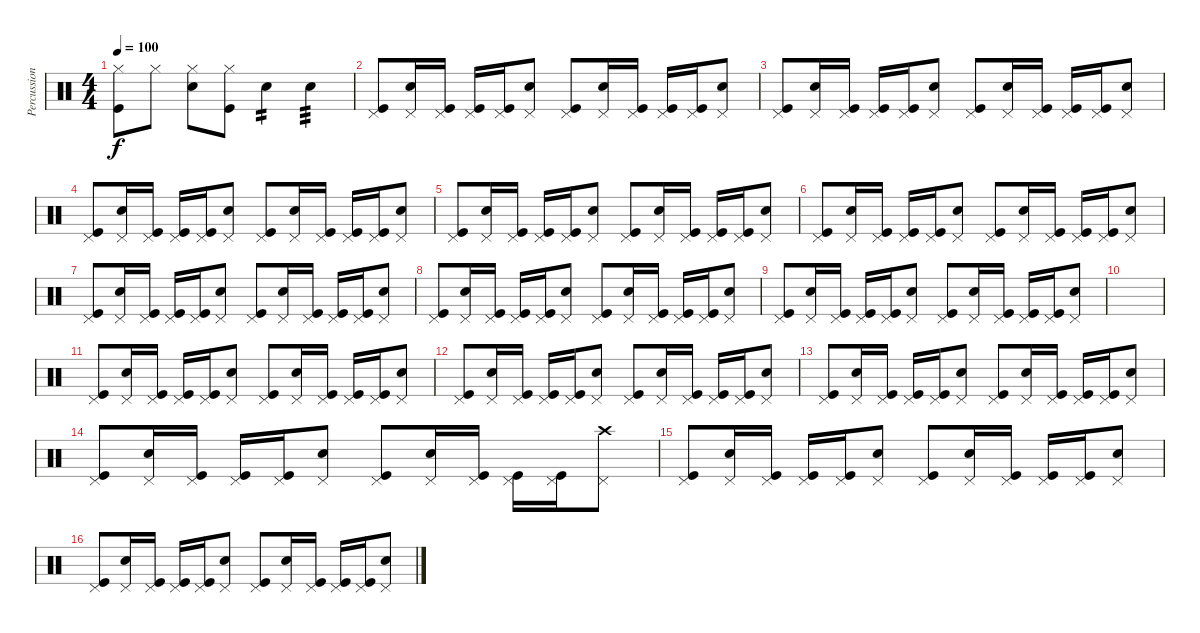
\track ("Percussion" "Percussion") {instrument percussion}
\staff {score}
\articulation defaults
\ts (4 4)
\tempo 100
\clef neutral
\ks c
("Kick (hit)" "Hi-Hat (closed)").8{dy f} "Hi-Hat (closed)".8 ("Electric Snare (hit)" "Hi-Hat (closed)").8 ("Kick (hit)" "Hi-Hat (closed)").8 "Electric Snare (hit)".4{tp 2} "Electric Snare (hit)".4{tp 3} |
("Kick (hit)" "Pedal Hi-Hat (hit)").8 ("Snare (hit) 2" "Pedal Hi-Hat (hit)").16 ("Kick (hit)" "Pedal Hi-Hat (hit)").16 ("Kick (hit)" "Pedal Hi-Hat (hit)").16 ("Kick (hit)" "Pedal Hi-Hat (hit)").16 ("Snare (hit) 2" "Pedal Hi-Hat (hit)").8 ("Kick (hit)" "Pedal Hi-Hat (hit)").8 ("Snare (hit) 2" "Pedal Hi-Hat (hit)").16 ("Kick (hit)" "Pedal Hi-Hat (hit)").16 ("Kick (hit)" "Pedal Hi-Hat (hit)").16 ("Kick (hit)" "Pedal Hi-Hat (hit)").16 ("Snare (hit) 2" "Pedal Hi-Hat (hit)").8 |
("Kick (hit)" "Pedal Hi-Hat (hit)").8 ("Snare (hit) 2" "Pedal Hi-Hat (hit)").16 ("Kick (hit)" "Pedal Hi-Hat (hit)").16 ("Kick (hit)" "Pedal Hi-Hat (hit)").16 ("Kick (hit)" "Pedal Hi-Hat (hit)").16 ("Snare (hit) 2" "Pedal Hi-Hat (hit)").8 ("Kick (hit)" "Pedal Hi-Hat (hit)").8 ("Snare (hit) 2" "Pedal Hi-Hat (hit)").16 ("Kick (hit)" "Pedal Hi-Hat (hit)").16 ("Kick (hit)" "Pedal Hi-Hat (hit)").16 ("Kick (hit)" "Pedal Hi-Hat (hit)").16 ("Snare (hit) 2" "Pedal Hi-Hat (hit)").8 |
("Kick (hit)" "Pedal Hi-Hat (hit)").8 ("Snare (hit) 2" "Pedal Hi-Hat (hit)").16 ("Kick (hit)" "Pedal Hi-Hat (hit)").16 ("Kick (hit)" "Pedal Hi-Hat (hit)").16 ("Kick (hit)" "Pedal Hi-Hat (hit)").16 ("Snare (hit) 2" "Pedal Hi-Hat (hit)").8 ("Kick (hit)" "Pedal Hi-Hat (hit)").8 ("Snare (hit) 2" "Pedal Hi-Hat (hit)").16 ("Kick (hit)" "Pedal Hi-Hat (hit)").16 ("Kick (hit)" "Pedal Hi-Hat (hit)").16 ("Kick (hit)" "Pedal Hi-Hat (hit)").16 ("Snare (hit) 2" "Pedal Hi-Hat (hit)").8 |
("Kick (hit)" "Pedal Hi-Hat (hit)").8 ("Snare (hit) 2" "Pedal Hi-Hat (hit)").16 ("Kick (hit)" "Pedal Hi-Hat (hit)").16 ("Kick (hit)" "Pedal Hi-Hat (hit)").16 ("Kick (hit)" "Pedal Hi-Hat (hit)").16 ("Snare (hit) 2" "Pedal Hi-Hat (hit)").8 ("Kick (hit)" "Pedal Hi-Hat (hit)").8 ("Snare (hit) 2" "Pedal Hi-Hat (hit)").16 ("Kick (hit)" "Pedal Hi-Hat (hit)").16 ("Kick (hit)" "Pedal Hi-Hat (hit)").16 ("Kick (hit)" "Pedal Hi-Hat (hit)").16 ("Snare (hit) 2" "Pedal Hi-Hat (hit)").8 |
("Kick (hit)" "Pedal Hi-Hat (hit)").8 ("Snare (hit) 2" "Pedal Hi-Hat (hit)").16 ("Kick (hit)" "Pedal Hi-Hat (hit)").16 ("Kick (hit)" "Pedal Hi-Hat (hit)").16 ("Kick (hit)" "Pedal Hi-Hat (hit)").16 ("Snare (hit) 2" "Pedal Hi-Hat (hit)").8 ("Kick (hit)" "Pedal Hi-Hat (hit)").8 ("Snare (hit) 2" "Pedal Hi-Hat (hit)").16 ("Kick (hit)" "Pedal Hi-Hat (hit)").16 ("Kick (hit)" "Pedal Hi-Hat (hit)").16 ("Kick (hit)" "Pedal Hi-Hat (hit)").16 ("Snare (hit) 2" "Pedal Hi-Hat (hit)").8 |
("Kick (hit)" "Pedal Hi-Hat (hit)").8 ("Snare (hit) 2" "Pedal Hi-Hat (hit)").16 ("Kick (hit)" "Pedal Hi-Hat (hit)").16 ("Kick (hit)" "Pedal Hi-Hat (hit)").16 ("Kick (hit)" "Pedal Hi-Hat (hit)").16 ("Snare (hit) 2" "Pedal Hi-Hat (hit)").8 ("Kick (hit)" "Pedal Hi-Hat (hit)").8 ("Snare (hit) 2" "Pedal Hi-Hat (hit)").16 ("Kick (hit)" "Pedal Hi-Hat (hit)").16 ("Kick (hit)" "Pedal Hi-Hat (hit)").16 ("Kick (hit)" "Pedal Hi-Hat (hit)").16 ("Snare (hit) 2" "Pedal Hi-Hat (hit)").8 |
("Kick (hit)" "Pedal Hi-Hat (hit)").8 ("Snare (hit) 2" "Pedal Hi-Hat (hit)").16 ("Kick (hit)" "Pedal Hi-Hat (hit)").16 ("Kick (hit)" "Pedal Hi-Hat (hit)").16 ("Kick (hit)" "Pedal Hi-Hat (hit)").16 ("Snare (hit) 2" "Pedal Hi-Hat (hit)").8 ("Kick (hit)" "Pedal Hi-Hat (hit)").8 ("Snare (hit) 2" "Pedal Hi-Hat (hit)").16 ("Kick (hit)" "Pedal Hi-Hat (hit)").16 ("Kick (hit)" "Pedal Hi-Hat (hit)").16 ("Kick (hit)" "Pedal Hi-Hat (hit)").16 ("Snare (hit) 2" "Pedal Hi-Hat (hit)").8 |
("Kick (hit)" "Pedal Hi-Hat (hit)").8 ("Snare (hit) 2" "Pedal Hi-Hat (hit)").16 ("Kick (hit)" "Pedal Hi-Hat (hit)").16 ("Kick (hit)" "Pedal Hi-Hat (hit)").16 ("Kick (hit)" "Pedal Hi-Hat (hit)").16 ("Snare (hit) 2" "Pedal Hi-Hat (hit)").8 ("Kick (hit)" "Pedal Hi-Hat (hit)").8 ("Snare (hit) 2" "Pedal Hi-Hat (hit)").16 ("Kick (hit)" "Pedal Hi-Hat (hit)").16 ("Kick (hit)" "Pedal Hi-Hat (hit)").16 ("Kick (hit)" "Pedal Hi-Hat (hit)").16 ("Snare (hit) 2" "Pedal Hi-Hat (hit)").8 |
|
("Kick (hit)" "Pedal Hi-Hat (hit)").8 ("Snare (hit) 2" "Pedal Hi-Hat (hit)").16 ("Kick (hit)" "Pedal Hi-Hat (hit)").16 ("Kick (hit)" "Pedal Hi-Hat (hit)").16 ("Kick (hit)" "Pedal Hi-Hat (hit)").16 ("Snare (hit) 2" "Pedal Hi-Hat (hit)").8 ("Kick (hit)" "Pedal Hi-Hat (hit)").8 ("Snare (hit) 2" "Pedal Hi-Hat (hit)").16 ("Kick (hit)" "Pedal Hi-Hat (hit)").16 ("Kick (hit)" "Pedal Hi-Hat (hit)").16 ("Kick (hit)" "Pedal Hi-Hat (hit)").16 ("Snare (hit) 2" "Pedal Hi-Hat (hit)").8 |
("Kick (hit)" "Pedal Hi-Hat (hit)").8 ("Snare (hit) 2" "Pedal Hi-Hat (hit)").16 ("Kick (hit)" "Pedal Hi-Hat (hit)").16 ("Kick (hit)" "Pedal Hi-Hat (hit)").16 ("Kick (hit)" "Pedal Hi-Hat (hit)").16 ("Snare (hit) 2" "Pedal Hi-Hat (hit)").8 ("Kick (hit)" "Pedal Hi-Hat (hit)").8 ("Snare (hit) 2" "Pedal Hi-Hat (hit)").16 ("Kick (hit)" "Pedal Hi-Hat (hit)").16 ("Kick (hit)" "Pedal Hi-Hat (hit)").16 ("Kick (hit)" "Pedal Hi-Hat (hit)").16 ("Snare (hit) 2" "Pedal Hi-Hat (hit)").8 |
("Kick (hit)" "Pedal Hi-Hat (hit)").8 ("Snare (hit) 2" "Pedal Hi-Hat (hit)").16 ("Kick (hit)" "Pedal Hi-Hat (hit)").16 ("Kick (hit)" "Pedal Hi-Hat (hit)").16 ("Kick (hit)" "Pedal Hi-Hat (hit)").16 ("Snare (hit) 2" "Pedal Hi-Hat (hit)").8 ("Kick (hit)" "Pedal Hi-Hat (hit)").8 ("Snare (hit) 2" "Pedal Hi-Hat (hit)").16 ("Kick (hit)" "Pedal Hi-Hat (hit)").16 ("Kick (hit)" "Pedal Hi-Hat (hit)").16 ("Kick (hit)" "Pedal Hi-Hat (hit)").16 ("Snare (hit) 2" "Pedal Hi-Hat (hit)").8 |
("Kick (hit)" "Pedal Hi-Hat (hit)").8 ("Snare (hit) 2" "Pedal Hi-Hat (hit)").16 ("Kick (hit)" "Pedal Hi-Hat (hit)").16 ("Kick (hit)" "Pedal Hi-Hat (hit)").16 ("Kick (hit)" "Pedal Hi-Hat (hit)").16 ("Snare (hit) 2" "Pedal Hi-Hat (hit)").8 ("Kick (hit)" "Pedal Hi-Hat (hit)").8 ("Snare (hit) 2" "Pedal Hi-Hat (hit)").16 ("Kick (hit)" "Pedal Hi-Hat (hit)").16 ("Kick (hit)" "Pedal Hi-Hat (hit)").16 ("Kick (hit)" "Pedal Hi-Hat (hit)").16 ("Crash high (hit)" "Pedal Hi-Hat (hit)").8 |
("Kick (hit)" "Pedal Hi-Hat (hit)").8 ("Snare (hit) 2" "Pedal Hi-Hat (hit)").16 ("Kick (hit)" "Pedal Hi-Hat (hit)").16 ("Kick (hit)" "Pedal Hi-Hat (hit)").16 ("Kick (hit)" "Pedal Hi-Hat (hit)").16 ("Snare (hit) 2" "Pedal Hi-Hat (hit)").8 ("Kick (hit)" "Pedal Hi-Hat (hit)").8 ("Snare (hit) 2" "Pedal Hi-Hat (hit)").16 ("Kick (hit)" "Pedal Hi-Hat (hit)").16 ("Kick (hit)" "Pedal Hi-Hat (hit)").16 ("Kick (hit)" "Pedal Hi-Hat (hit)").16 ("Snare (hit) 2" "Pedal Hi-Hat (hit)").8 |
("Kick (hit)" "Pedal Hi-Hat (hit)").8 ("Snare (hit) 2" "Pedal Hi-Hat (hit)").16 ("Kick (hit)" "Pedal Hi-Hat (hit)").16 ("Kick (hit)" "Pedal Hi-Hat (hit)").16 ("Kick (hit)" "Pedal Hi-Hat (hit)").16 ("Snare (hit) 2" "Pedal Hi-Hat (hit)").8 ("Kick (hit)" "Pedal Hi-Hat (hit)").8 ("Snare (hit) 2" "Pedal Hi-Hat (hit)").16 ("Kick (hit)" "Pedal Hi-Hat (hit)").16 ("Kick (hit)" "Pedal Hi-Hat (hit)").16 ("Kick (hit)" "Pedal Hi-Hat (hit)").16 ("Snare (hit) 2" "Pedal Hi-Hat (hit)").8
